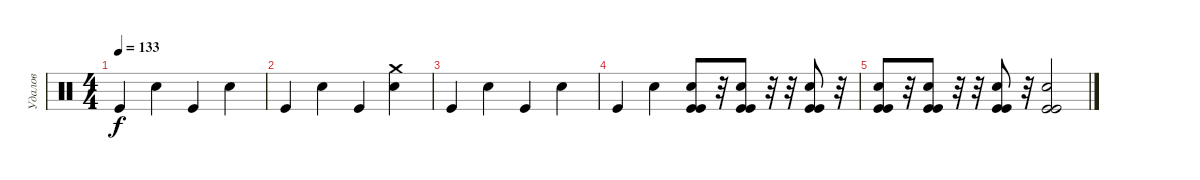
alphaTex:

\track ("Удалов" "Удалов") {instrument percussion}
\staff {score}
\articulation defaults
\ts (4 4)
\tempo 133
\clef neutral
\ks c "Kick (hit)".4{dy f} "Electric Snare (hit)".4 "Kick (hit)".4 "Electric Snare (hit)".4
|
"Kick (hit)".4 "Electric Snare (hit)".4 "Kick (hit)".4 ("Crash medium (hit)" "Electric Snare (hit)").4 |
"Kick (hit)".4 "Electric Snare (hit)".4 "Kick (hit)".4 "Electric Snare (hit)".4 |
"Kick (hit)".4 "Electric Snare (hit)".4 ("Electric Snare (hit)" "Kick (hit)" "Kick (hit)").8 r.32 ("Electric Snare (hit)" "Kick (hit)" "Kick (hit)").8 r.32 r.32 ("Electric Snare (hit)" "Kick (hit)" "Kick (hit)").8 r.32 |
("Electric Snare (hit)" "Kick (hit)" "Kick (hit)").8 r.32 ("Electric Snare (hit)" "Kick (hit)" "Kick (hit)").8 r.32 r.32 ("Electric Snare (hit)" "Kick (hit)" "Kick (hit)").8 r.32 ("Electric Snare (hit)" "Kick (hit)" "Kick (hit)").2
